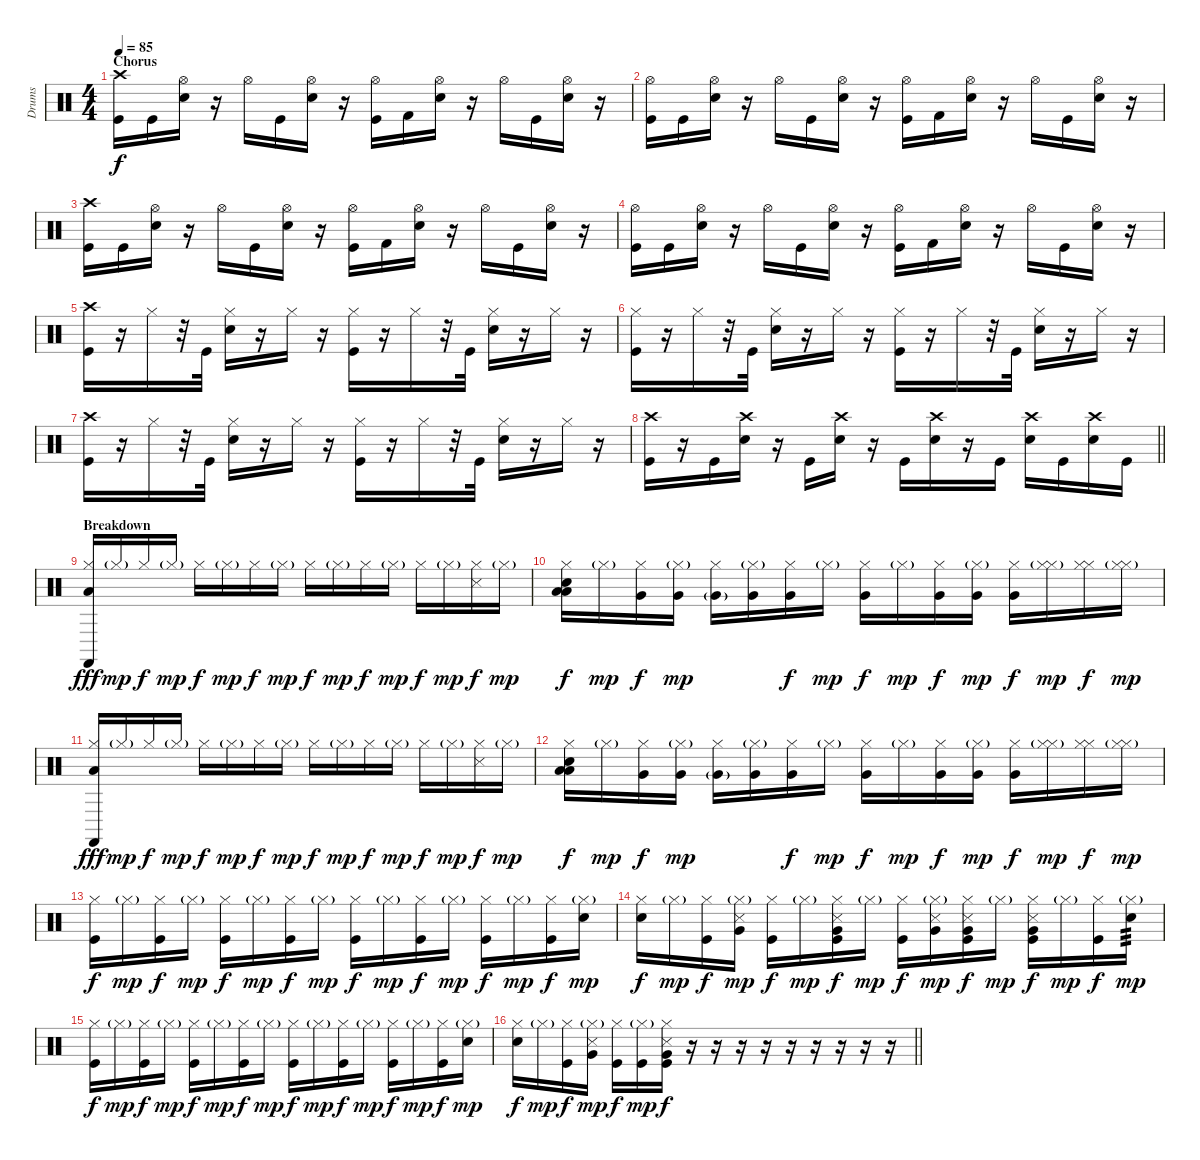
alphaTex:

\track ("Drums" "Drums") {instrument percussion}
\staff {score}
\articulation defaults
\ts (4 4)
\section ("" "Chorus")
\tempo 85
\clef neutral
\ks c
("Crash high (hit)" "Kick (hit)").16{dy f} "Kick (hit)".16 ("Hi-Hat (open)" "Snare (hit) 2").16 r.16 "Hi-Hat (open)".16 "Kick (hit)".16 ("Hi-Hat (open)" "Snare (hit) 2").16 r.16 ("Hi-Hat (open)" "Kick (hit)").16 "Kick (hit) 2".16 ("Hi-Hat (open)" "Snare (hit) 2").16 r.16 "Hi-Hat (open)".16 "Kick (hit)".16 ("Hi-Hat (open)" "Snare (hit) 2").16 r.16 |
("Hi-Hat (open)" "Kick (hit)").16 "Kick (hit)".16 ("Hi-Hat (open)" "Snare (hit) 2").16 r.16 "Hi-Hat (open)".16 "Kick (hit)".16 ("Hi-Hat (open)" "Snare (hit) 2").16 r.16 ("Hi-Hat (open)" "Kick (hit)").16 "Kick (hit) 2".16 ("Hi-Hat (open)" "Snare (hit) 2").16 r.16 "Hi-Hat (open)".16 "Kick (hit)".16 ("Hi-Hat (open)" "Snare (hit) 2").16 r.16 |
("Crash high (hit)" "Kick (hit)").16 "Kick (hit)".16 ("Hi-Hat (open)" "Snare (hit) 2").16 r.16 "Hi-Hat (open)".16 "Kick (hit)".16 ("Hi-Hat (open)" "Snare (hit) 2").16 r.16 ("Hi-Hat (open)" "Kick (hit)").16 "Kick (hit) 2".16 ("Hi-Hat (open)" "Snare (hit) 2").16 r.16 "Hi-Hat (open)".16 "Kick (hit)".16 ("Hi-Hat (open)" "Snare (hit) 2").16 r.16 |
("Hi-Hat (open)" "Kick (hit)").16 "Kick (hit)".16 ("Hi-Hat (open)" "Snare (hit) 2").16 r.16 "Hi-Hat (open)".16 "Kick (hit)".16 ("Hi-Hat (open)" "Snare (hit) 2").16 r.16 ("Hi-Hat (open)" "Kick (hit)").16 "Kick (hit) 2".16 ("Hi-Hat (open)" "Snare (hit) 2").16 r.16 "Hi-Hat (open)".16 "Kick (hit)".16 ("Hi-Hat (open)" "Snare (hit) 2").16 r.16 |
("Crash high (hit)" "Kick (hit)").16 r.16 "Hi-Hat (closed)".16 r.32 "Kick (hit)".32 ("Hi-Hat (closed)" "Snare (hit) 2").16 r.16 "Hi-Hat (closed)".16 r.16 ("Hi-Hat (closed)" "Kick (hit)").16 r.16 "Hi-Hat (closed)".16 r.32 "Kick (hit)".32 ("Hi-Hat (closed)" "Snare (hit) 2").16 r.16 "Hi-Hat (closed)".16 r.16 |
("Hi-Hat (closed)" "Kick (hit)").16 r.16 "Hi-Hat (closed)".16 r.32 "Kick (hit)".32 ("Hi-Hat (closed)" "Snare (hit) 2").16 r.16 "Hi-Hat (closed)".16 r.16 ("Hi-Hat (closed)" "Kick (hit)").16 r.16 "Hi-Hat (closed)".16 r.32 "Kick (hit)".32 ("Hi-Hat (closed)" "Snare (hit) 2").16 r.16 "Hi-Hat (closed)".16 r.16 |
("Crash high (hit)" "Kick (hit)").16 r.16 "Hi-Hat (closed)".16 r.32 "Kick (hit)".32 ("Hi-Hat (closed)" "Snare (hit) 2").16 r.16 "Hi-Hat (closed)".16 r.16 ("Hi-Hat (closed)" "Kick (hit)").16 r.16 "Hi-Hat (closed)".16 r.32 "Kick (hit)".32 ("Hi-Hat (closed)" "Snare (hit) 2").16 r.16 "Hi-Hat (closed)".16 r.16 |
\barLineRight lightlight
("Crash high (hit)" "Kick (hit)").16 r.16 "Kick (hit)".16 ("Crash high (hit)" "Snare (hit) 2").16 r.16 "Kick (hit)".16 ("Crash high (hit)" "Snare (hit) 2").16 r.16 "Kick (hit)".16 ("Crash high (hit)" "Snare (hit) 2").16 r.16 "Kick (hit)".16 ("Crash high (hit)" "Snare (hit) 2").16 "Kick (hit)".16 ("Crash high (hit)" "Snare (hit) 2").16 "Kick (hit)".16 |
\section ("" "Breakdown")
("Hi-Hat (closed)" "Low Floor Tom (hit)" "Castanets (hit)").16{dy fff} "Hi-Hat (closed)"{g}.16{dy mp} "Hi-Hat (closed)".16{dy f} "Hi-Hat (closed)"{g}.16{dy mp} "Hi-Hat (closed)".16{dy f} "Hi-Hat (closed)"{g}.16{dy mp} "Hi-Hat (closed)".16{dy f} "Hi-Hat (closed)"{g}.16{dy mp} "Hi-Hat (closed)".16{dy f} "Hi-Hat (closed)"{g}.16{dy mp} "Hi-Hat (closed)".16{dy f} "Hi-Hat (closed)"{g}.16{dy mp} "Hi-Hat (closed)".16{dy f} "Hi-Hat (closed)"{g}.16{dy mp} ("Hi-Hat (closed)" "Snare (side stick) 3").16{dy f} "Hi-Hat (closed)"{g}.16{dy mp} |
("Hi-Hat (closed)" "Low Tom (hit)" "Snare (hit) 2" "Low Floor Tom (hit)").16{dy f} "Hi-Hat (closed)"{g}.16{dy mp} ("Hi-Hat (closed)" "Very Low Tom (hit)").16{dy f} ("Hi-Hat (closed)"{g} "Very Low Tom (hit)").16{dy mp} ("Hi-Hat (closed)" "Very Low Tom (hit)"{g}).16 ("Hi-Hat (closed)"{g} "Very Low Tom (hit)").16 ("Hi-Hat (closed)" "Very Low Tom (hit)").16{dy f} "Hi-Hat (closed)"{g}.16{dy mp} ("Hi-Hat (closed)" "Very Low Tom (hit)").16{dy f} "Hi-Hat (closed)"{g}.16{dy mp} ("Hi-Hat (closed)" "Very Low Tom (hit)").16{dy f} ("Hi-Hat (closed)"{g} "Very Low Tom (hit)").16{dy mp} ("Hi-Hat (closed)" "Very Low Tom (hit)").16{dy f} ("Hi-Hat (closed)"{g} "Hi-Hat (closed)").16{dy mp} ("Hi-Hat (closed)" "Hi-Hat (closed)").16{dy f} ("Hi-Hat (closed)"{g} "Hi-Hat (closed)").16{dy mp} |
("Hi-Hat (closed)" "Low Floor Tom (hit)" "Castanets (hit)").16{dy fff} "Hi-Hat (closed)"{g}.16{dy mp} "Hi-Hat (closed)".16{dy f} "Hi-Hat (closed)"{g}.16{dy mp} "Hi-Hat (closed)".16{dy f} "Hi-Hat (closed)"{g}.16{dy mp} "Hi-Hat (closed)".16{dy f} "Hi-Hat (closed)"{g}.16{dy mp} "Hi-Hat (closed)".16{dy f} "Hi-Hat (closed)"{g}.16{dy mp} "Hi-Hat (closed)".16{dy f} "Hi-Hat (closed)"{g}.16{dy mp} "Hi-Hat (closed)".16{dy f} "Hi-Hat (closed)"{g}.16{dy mp} ("Hi-Hat (closed)" "Snare (side stick) 3").16{dy f} "Hi-Hat (closed)"{g}.16{dy mp} |
("Hi-Hat (closed)" "Low Tom (hit)" "Snare (hit) 2" "Low Floor Tom (hit)").16{dy f} "Hi-Hat (closed)"{g}.16{dy mp} ("Hi-Hat (closed)" "Very Low Tom (hit)").16{dy f} ("Hi-Hat (closed)"{g} "Very Low Tom (hit)").16{dy mp} ("Hi-Hat (closed)" "Very Low Tom (hit)"{g}).16 ("Hi-Hat (closed)"{g} "Very Low Tom (hit)").16 ("Hi-Hat (closed)" "Very Low Tom (hit)").16{dy f} "Hi-Hat (closed)"{g}.16{dy mp} ("Hi-Hat (closed)" "Very Low Tom (hit)").16{dy f} "Hi-Hat (closed)"{g}.16{dy mp} ("Hi-Hat (closed)" "Very Low Tom (hit)").16{dy f} ("Hi-Hat (closed)"{g} "Very Low Tom (hit)").16{dy mp} ("Hi-Hat (closed)" "Very Low Tom (hit)").16{dy f} ("Hi-Hat (closed)"{g} "Hi-Hat (closed)").16{dy mp} ("Hi-Hat (closed)" "Hi-Hat (closed)").16{dy f} ("Hi-Hat (closed)"{g} "Hi-Hat (closed)").16{dy mp} |
("Hi-Hat (closed)" "Kick (hit)").16{dy f} "Hi-Hat (closed)"{g}.16{dy mp} ("Hi-Hat (closed)" "Kick (hit)").16{dy f} "Hi-Hat (closed)"{g}.16{dy mp} ("Hi-Hat (closed)" "Kick (hit)").16{dy f} "Hi-Hat (closed)"{g}.16{dy mp} ("Hi-Hat (closed)" "Kick (hit)").16{dy f} "Hi-Hat (closed)"{g}.16{dy mp} ("Hi-Hat (closed)" "Kick (hit)").16{dy f} "Hi-Hat (closed)"{g}.16{dy mp} ("Hi-Hat (closed)" "Kick (hit)").16{dy f} "Hi-Hat (closed)"{g}.16{dy mp} ("Hi-Hat (closed)" "Kick (hit)").16{dy f} "Hi-Hat (closed)"{g}.16{dy mp} ("Hi-Hat (closed)" "Kick (hit)").16{dy f} ("Hi-Hat (closed)"{g} "Snare (hit) 2").16{dy mp} |
("Hi-Hat (closed)" "Snare (hit) 2").16{dy f} "Hi-Hat (closed)"{g}.16{dy mp} ("Hi-Hat (closed)" "Kick (hit)").16{dy f} ("Hi-Hat (closed)"{g} "Snare (side stick) 3" "Very Low Tom (hit)").16{dy mp} ("Hi-Hat (closed)" "Kick (hit)").16{dy f} "Hi-Hat (closed)"{g}.16{dy mp} ("Hi-Hat (closed)" "Snare (side stick) 3" "Very Low Tom (hit)" "Kick (hit)").16{dy f} "Hi-Hat (closed)"{g}.16{dy mp} ("Hi-Hat (closed)" "Kick (hit)").16{dy f} ("Hi-Hat (closed)"{g} "Snare (side stick) 3" "Very Low Tom (hit)").16{dy mp} ("Hi-Hat (closed)" "Snare (side stick) 3" "Very Low Tom (hit)" "Kick (hit)").16{dy f} "Hi-Hat (closed)"{g}.16{dy mp} ("Hi-Hat (closed)" "Snare (side stick) 3" "Very Low Tom (hit)" "Kick (hit)").16{dy f} "Hi-Hat (closed)"{g}.16{dy mp} ("Hi-Hat (closed)" "Kick (hit)").16{dy f} ("Hi-Hat (closed)"{g} "Electric Snare (hit)").16{tp 3 dy mp} |
("Hi-Hat (closed)" "Kick (hit)").16{dy f} "Hi-Hat (closed)"{g}.16{dy mp} ("Hi-Hat (closed)" "Kick (hit)").16{dy f} "Hi-Hat (closed)"{g}.16{dy mp} ("Hi-Hat (closed)" "Kick (hit)").16{dy f} "Hi-Hat (closed)"{g}.16{dy mp} ("Hi-Hat (closed)" "Kick (hit)").16{dy f} "Hi-Hat (closed)"{g}.16{dy mp} ("Hi-Hat (closed)" "Kick (hit)").16{dy f} "Hi-Hat (closed)"{g}.16{dy mp} ("Hi-Hat (closed)" "Kick (hit)").16{dy f} "Hi-Hat (closed)"{g}.16{dy mp} ("Hi-Hat (closed)" "Kick (hit)").16{dy f} "Hi-Hat (closed)"{g}.16{dy mp} ("Hi-Hat (closed)" "Kick (hit)").16{dy f} ("Hi-Hat (closed)"{g} "Snare (hit) 2").16{dy mp} |
\barLineRight lightlight
("Hi-Hat (closed)" "Snare (hit) 2").16{dy f} "Hi-Hat (closed)"{g}.16{dy mp} ("Hi-Hat (closed)" "Kick (hit)").16{dy f} ("Hi-Hat (closed)"{g} "Snare (side stick) 3" "Very Low Tom (hit)").16{dy mp} ("Hi-Hat (closed)" "Kick (hit)").16{dy f} ("Hi-Hat (closed)"{g} "Kick (hit)").16{dy mp} ("Hi-Hat (closed)" "Snare (side stick) 3" "Very Low Tom (hit)" "Kick (hit)").16{dy f} r.16 r.16 r.16 r.16 r.16 r.16 r.16 r.16 r.16
